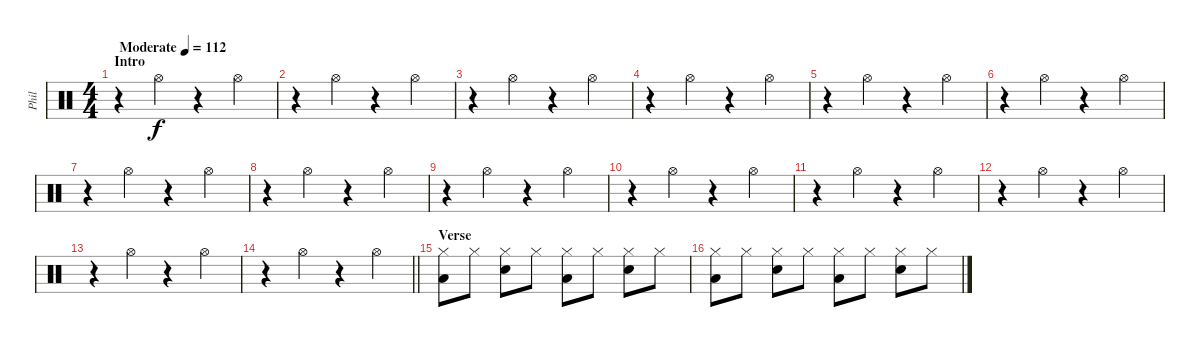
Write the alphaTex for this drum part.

\track ("Phil" "Phil") {instrument percussion}
\staff {score}
\articulation defaults
\ts (4 4)
\section ("" "Intro")
\tempo (112 "Moderate")
\clef neutral
\ks c
r.4{dy f} "Hi-Hat (open)".4 r.4 "Hi-Hat (open)".4 |
r.4 "Hi-Hat (open)".4 r.4 "Hi-Hat (open)".4 |
r.4 "Hi-Hat (open)".4 r.4 "Hi-Hat (open)".4 |
r.4 "Hi-Hat (open)".4 r.4 "Hi-Hat (open)".4 |
r.4 "Hi-Hat (open)".4 r.4 "Hi-Hat (open)".4 |
r.4 "Hi-Hat (open)".4 r.4 "Hi-Hat (open)".4 |
r.4 "Hi-Hat (open)".4 r.4 "Hi-Hat (open)".4 |
r.4 "Hi-Hat (open)".4 r.4 "Hi-Hat (open)".4 |
r.4 "Hi-Hat (open)".4 r.4 "Hi-Hat (open)".4 |
r.4 "Hi-Hat (open)".4 r.4 "Hi-Hat (open)".4 |
r.4 "Hi-Hat (open)".4 r.4 "Hi-Hat (open)".4 |
r.4 "Hi-Hat (open)".4 r.4 "Hi-Hat (open)".4 |
r.4 "Hi-Hat (open)".4 r.4 "Hi-Hat (open)".4 |
\barLineRight lightlight
r.4 "Hi-Hat (open)".4 r.4 "Hi-Hat (open)".4 |
\section ("" "Verse")
("Hi-Hat (closed)" "Low Floor Tom (hit)").8 "Hi-Hat (closed)".8 ("Hi-Hat (closed)" "Snare (hit) 2").8 "Hi-Hat (closed)".8 ("Hi-Hat (closed)" "Low Floor Tom (hit)").8 "Hi-Hat (closed)".8 ("Hi-Hat (closed)" "Snare (hit) 2").8 "Hi-Hat (closed)".8 |
("Hi-Hat (closed)" "Low Floor Tom (hit)").8 "Hi-Hat (closed)".8 ("Hi-Hat (closed)" "Snare (hit) 2").8 "Hi-Hat (closed)".8 ("Hi-Hat (closed)" "Low Floor Tom (hit)").8 "Hi-Hat (closed)".8 ("Hi-Hat (closed)" "Snare (hit) 2").8 "Hi-Hat (closed)".8
